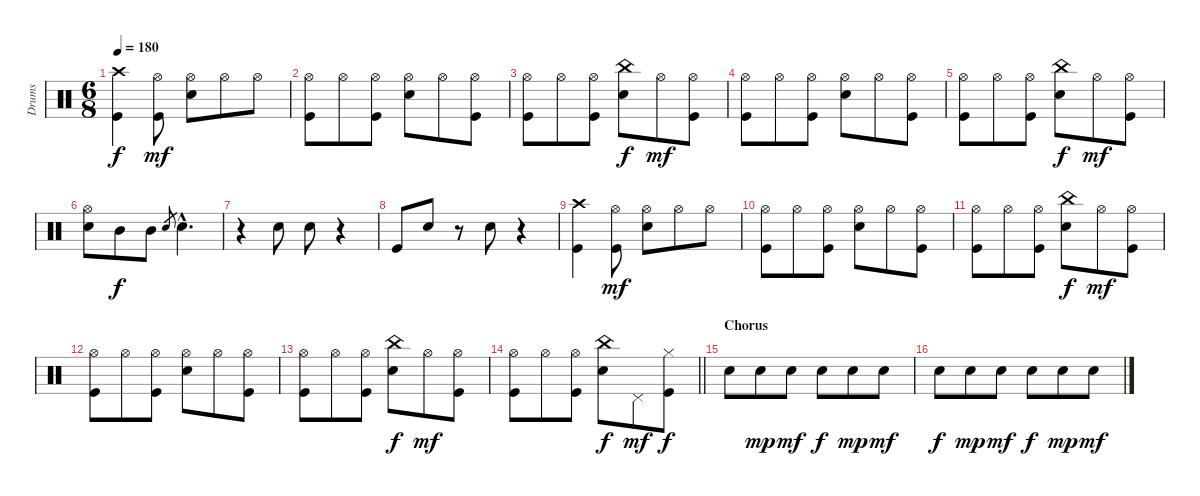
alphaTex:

\track ("Drums" "Drums") {instrument percussion}
\staff {score}
\articulation defaults
\ts (6 8)
\tempo 180
\clef neutral
\ks c
("Crash high (hit)" "Kick (hit)").4{dy f} ("Hi-Hat (open)" "Kick (hit)").8{dy mf} ("Hi-Hat (open)" "Electric Snare (hit)").8 "Hi-Hat (open)".8 "Hi-Hat (open)".8 |
("Hi-Hat (open)" "Kick (hit)").8 "Hi-Hat (open)".8 ("Hi-Hat (open)" "Kick (hit)").8 ("Hi-Hat (open)" "Electric Snare (hit)").8 "Hi-Hat (open)".8 ("Hi-Hat (open)" "Kick (hit)").8 |
("Hi-Hat (open)" "Kick (hit)").8 "Hi-Hat (open)".8 ("Hi-Hat (open)" "Kick (hit)").8 ("China (hit)" "Electric Snare (hit)").8{dy f} "Hi-Hat (open)".8{dy mf} ("Hi-Hat (open)" "Kick (hit)").8 |
("Hi-Hat (open)" "Kick (hit)").8 "Hi-Hat (open)".8 ("Hi-Hat (open)" "Kick (hit)").8 ("Hi-Hat (open)" "Electric Snare (hit)").8 "Hi-Hat (open)".8 ("Hi-Hat (open)" "Kick (hit)").8 |
("Hi-Hat (open)" "Kick (hit)").8 "Hi-Hat (open)".8 ("Hi-Hat (open)" "Kick (hit)").8 ("China (hit)" "Electric Snare (hit)").8{dy f} "Hi-Hat (open)".8{dy mf} ("Hi-Hat (open)" "Kick (hit)").8 |
("Hi-Hat (open)" "Electric Snare (hit)").8 "Mid Tom (hit)".8{dy f} "Mid Tom (hit)".8 "Electric Snare (hit)".8{gr} "Electric Snare (hit)"{hac}.4{d} |
r.4 "Electric Snare (hit)".8 "Electric Snare (hit)".8 r.4 |
"Kick (hit)".8 "Electric Snare (hit)".8 r.8 "Electric Snare (hit)".8 r.4 |
("Crash high (hit)" "Kick (hit)").4 ("Hi-Hat (open)" "Kick (hit)").8{dy mf} ("Hi-Hat (open)" "Electric Snare (hit)").8 "Hi-Hat (open)".8 "Hi-Hat (open)".8 |
("Hi-Hat (open)" "Kick (hit)").8 "Hi-Hat (open)".8 ("Hi-Hat (open)" "Kick (hit)").8 ("Hi-Hat (open)" "Electric Snare (hit)").8 "Hi-Hat (open)".8 ("Hi-Hat (open)" "Kick (hit)").8 |
("Hi-Hat (open)" "Kick (hit)").8 "Hi-Hat (open)".8 ("Hi-Hat (open)" "Kick (hit)").8 ("China (hit)" "Electric Snare (hit)").8{dy f} "Hi-Hat (open)".8{dy mf} ("Hi-Hat (open)" "Kick (hit)").8 |
("Hi-Hat (open)" "Kick (hit)").8 "Hi-Hat (open)".8 ("Hi-Hat (open)" "Kick (hit)").8 ("Hi-Hat (open)" "Electric Snare (hit)").8 "Hi-Hat (open)".8 ("Hi-Hat (open)" "Kick (hit)").8 |
("Hi-Hat (open)" "Kick (hit)").8 "Hi-Hat (open)".8 ("Hi-Hat (open)" "Kick (hit)").8 ("China (hit)" "Electric Snare (hit)").8{dy f} "Hi-Hat (open)".8{dy mf} ("Hi-Hat (open)" "Kick (hit)").8 |
\barLineRight lightlight
("Hi-Hat (open)" "Kick (hit)").8 "Hi-Hat (open)".8 ("Hi-Hat (open)" "Kick (hit)").8 ("China (hit)" "Electric Snare (hit)").8{dy f} "Pedal Hi-Hat (hit)".8{dy mf} ("Hi-Hat (closed)" "Kick (hit)").8{dy f} |
\section ("" "Chorus")
"Electric Snare (hit)".8 "Electric Snare (hit)".8{dy mp} "Electric Snare (hit)".8{dy mf} "Electric Snare (hit)".8{dy f} "Electric Snare (hit)".8{dy mp} "Electric Snare (hit)".8{dy mf} |
"Electric Snare (hit)".8{dy f} "Electric Snare (hit)".8{dy mp} "Electric Snare (hit)".8{dy mf} "Electric Snare (hit)".8{dy f} "Electric Snare (hit)".8{dy mp} "Electric Snare (hit)".8{dy mf}
